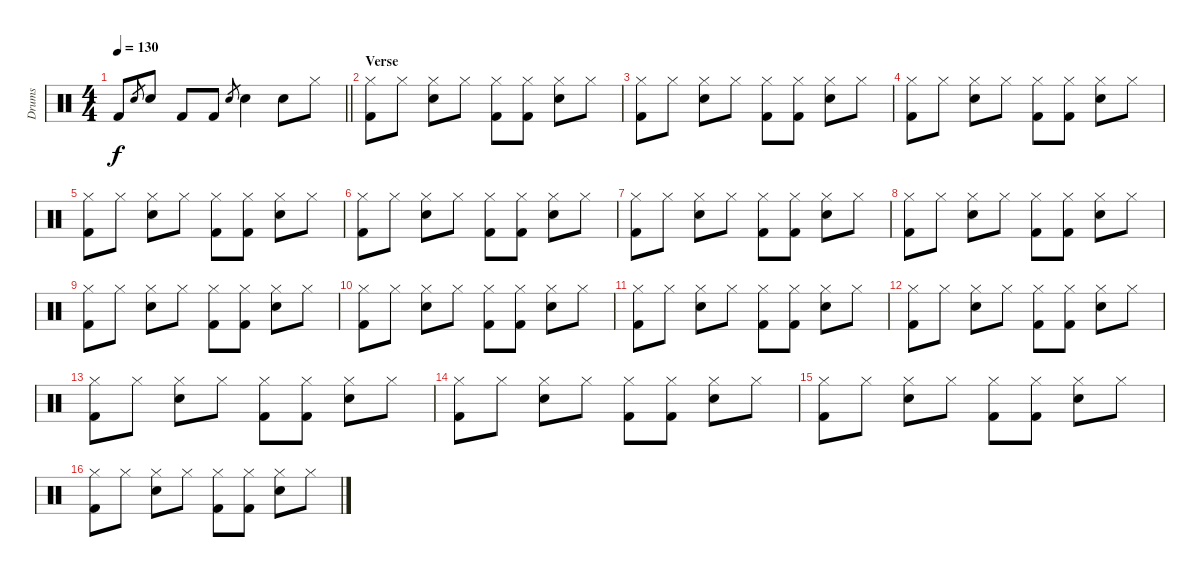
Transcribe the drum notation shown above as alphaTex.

\track ("Drums" "Drums") {instrument percussion}
\staff {score}
\articulation defaults
\ts (4 4)
\tempo 130
\clef neutral
\barLineRight lightlight
\ks c "Kick (hit) 2".8{dy f} "Snare (hit) 2".8{gr} "Snare (hit) 2".8 "Kick (hit) 2".8 "Kick (hit) 2".8 "Snare (hit) 2".8{gr} "Snare (hit) 2".4 "Snare (hit) 2".8 "Hi-Hat (closed)".8
|
\section ("" "Verse")
("Hi-Hat (closed)" "Kick (hit) 2").8 "Hi-Hat (closed)".8 ("Hi-Hat (closed)" "Snare (hit) 2").8 "Hi-Hat (closed)".8 ("Hi-Hat (closed)" "Kick (hit) 2").8 ("Hi-Hat (closed)" "Kick (hit) 2").8 ("Hi-Hat (closed)" "Snare (hit) 2").8 "Hi-Hat (closed)".8 |
("Hi-Hat (closed)" "Kick (hit) 2").8 "Hi-Hat (closed)".8 ("Hi-Hat (closed)" "Snare (hit) 2").8 "Hi-Hat (closed)".8 ("Hi-Hat (closed)" "Kick (hit) 2").8 ("Hi-Hat (closed)" "Kick (hit) 2").8 ("Hi-Hat (closed)" "Snare (hit) 2").8 "Hi-Hat (closed)".8 |
("Hi-Hat (closed)" "Kick (hit) 2").8 "Hi-Hat (closed)".8 ("Hi-Hat (closed)" "Snare (hit) 2").8 "Hi-Hat (closed)".8 ("Hi-Hat (closed)" "Kick (hit) 2").8 ("Hi-Hat (closed)" "Kick (hit) 2").8 ("Hi-Hat (closed)" "Snare (hit) 2").8 "Hi-Hat (closed)".8 |
("Hi-Hat (closed)" "Kick (hit) 2").8 "Hi-Hat (closed)".8 ("Hi-Hat (closed)" "Snare (hit) 2").8 "Hi-Hat (closed)".8 ("Hi-Hat (closed)" "Kick (hit) 2").8 ("Hi-Hat (closed)" "Kick (hit) 2").8 ("Hi-Hat (closed)" "Snare (hit) 2").8 "Hi-Hat (closed)".8 |
("Hi-Hat (closed)" "Kick (hit) 2").8 "Hi-Hat (closed)".8 ("Hi-Hat (closed)" "Snare (hit) 2").8 "Hi-Hat (closed)".8 ("Hi-Hat (closed)" "Kick (hit) 2").8 ("Hi-Hat (closed)" "Kick (hit) 2").8 ("Hi-Hat (closed)" "Snare (hit) 2").8 "Hi-Hat (closed)".8 |
("Hi-Hat (closed)" "Kick (hit) 2").8 "Hi-Hat (closed)".8 ("Hi-Hat (closed)" "Snare (hit) 2").8 "Hi-Hat (closed)".8 ("Hi-Hat (closed)" "Kick (hit) 2").8 ("Hi-Hat (closed)" "Kick (hit) 2").8 ("Hi-Hat (closed)" "Snare (hit) 2").8 "Hi-Hat (closed)".8 |
("Hi-Hat (closed)" "Kick (hit) 2").8 "Hi-Hat (closed)".8 ("Hi-Hat (closed)" "Snare (hit) 2").8 "Hi-Hat (closed)".8 ("Hi-Hat (closed)" "Kick (hit) 2").8 ("Hi-Hat (closed)" "Kick (hit) 2").8 ("Hi-Hat (closed)" "Snare (hit) 2").8 "Hi-Hat (closed)".8 |
("Hi-Hat (closed)" "Kick (hit) 2").8 "Hi-Hat (closed)".8 ("Hi-Hat (closed)" "Snare (hit) 2").8 "Hi-Hat (closed)".8 ("Hi-Hat (closed)" "Kick (hit) 2").8 ("Hi-Hat (closed)" "Kick (hit) 2").8 ("Hi-Hat (closed)" "Snare (hit) 2").8 "Hi-Hat (closed)".8 |
("Hi-Hat (closed)" "Kick (hit) 2").8 "Hi-Hat (closed)".8 ("Hi-Hat (closed)" "Snare (hit) 2").8 "Hi-Hat (closed)".8 ("Hi-Hat (closed)" "Kick (hit) 2").8 ("Hi-Hat (closed)" "Kick (hit) 2").8 ("Hi-Hat (closed)" "Snare (hit) 2").8 "Hi-Hat (closed)".8 |
("Hi-Hat (closed)" "Kick (hit) 2").8 "Hi-Hat (closed)".8 ("Hi-Hat (closed)" "Snare (hit) 2").8 "Hi-Hat (closed)".8 ("Hi-Hat (closed)" "Kick (hit) 2").8 ("Hi-Hat (closed)" "Kick (hit) 2").8 ("Hi-Hat (closed)" "Snare (hit) 2").8 "Hi-Hat (closed)".8 |
("Hi-Hat (closed)" "Kick (hit) 2").8 "Hi-Hat (closed)".8 ("Hi-Hat (closed)" "Snare (hit) 2").8 "Hi-Hat (closed)".8 ("Hi-Hat (closed)" "Kick (hit) 2").8 ("Hi-Hat (closed)" "Kick (hit) 2").8 ("Hi-Hat (closed)" "Snare (hit) 2").8 "Hi-Hat (closed)".8 |
("Hi-Hat (closed)" "Kick (hit) 2").8 "Hi-Hat (closed)".8 ("Hi-Hat (closed)" "Snare (hit) 2").8 "Hi-Hat (closed)".8 ("Hi-Hat (closed)" "Kick (hit) 2").8 ("Hi-Hat (closed)" "Kick (hit) 2").8 ("Hi-Hat (closed)" "Snare (hit) 2").8 "Hi-Hat (closed)".8 |
("Hi-Hat (closed)" "Kick (hit) 2").8 "Hi-Hat (closed)".8 ("Hi-Hat (closed)" "Snare (hit) 2").8 "Hi-Hat (closed)".8 ("Hi-Hat (closed)" "Kick (hit) 2").8 ("Hi-Hat (closed)" "Kick (hit) 2").8 ("Hi-Hat (closed)" "Snare (hit) 2").8 "Hi-Hat (closed)".8 |
("Hi-Hat (closed)" "Kick (hit) 2").8 "Hi-Hat (closed)".8 ("Hi-Hat (closed)" "Snare (hit) 2").8 "Hi-Hat (closed)".8 ("Hi-Hat (closed)" "Kick (hit) 2").8 ("Hi-Hat (closed)" "Kick (hit) 2").8 ("Hi-Hat (closed)" "Snare (hit) 2").8 "Hi-Hat (closed)".8 |
("Hi-Hat (closed)" "Kick (hit) 2").8 "Hi-Hat (closed)".8 ("Hi-Hat (closed)" "Snare (hit) 2").8 "Hi-Hat (closed)".8 ("Hi-Hat (closed)" "Kick (hit) 2").8 ("Hi-Hat (closed)" "Kick (hit) 2").8 ("Hi-Hat (closed)" "Snare (hit) 2").8 "Hi-Hat (closed)".8
